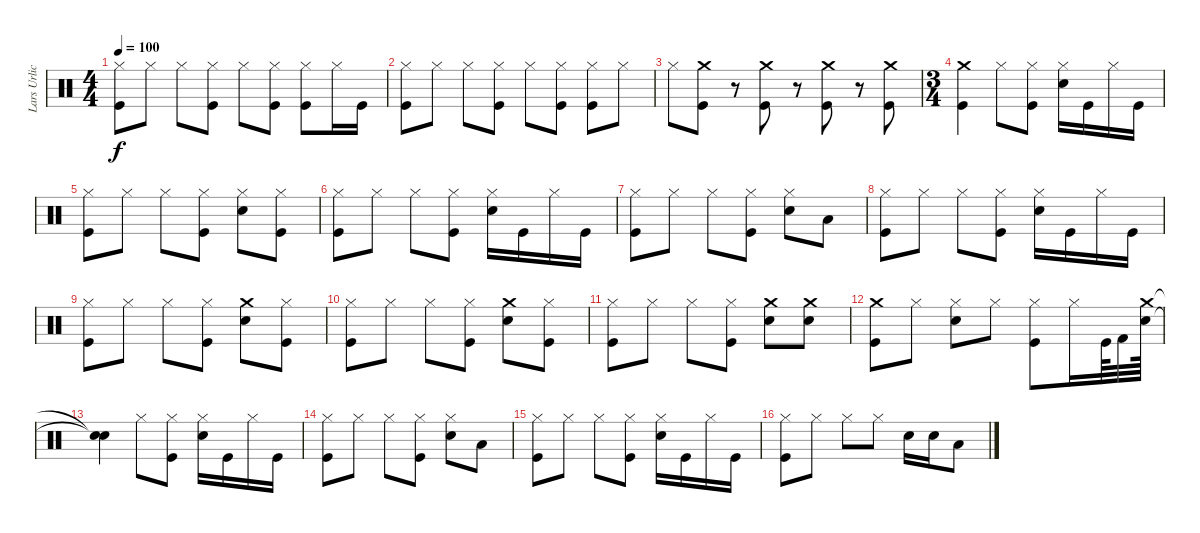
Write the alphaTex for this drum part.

\track ("Lars Urlich" "Lars Urlic") {instrument percussion}
\staff {score}
\articulation defaults
\ts (4 4)
\tempo 100
\clef neutral
\ks c
("Kick (hit)" "Hi-Hat (closed)").8{dy f} "Hi-Hat (closed)".8 "Hi-Hat (closed)".8 ("Kick (hit)" "Hi-Hat (closed)").8 "Hi-Hat (closed)".8 ("Kick (hit)" "Hi-Hat (closed)").8 ("Kick (hit)" "Hi-Hat (closed)").8 "Hi-Hat (closed)".16 "Kick (hit)".16 |
("Kick (hit)" "Hi-Hat (closed)").8 "Hi-Hat (closed)".8 "Hi-Hat (closed)".8 ("Kick (hit)" "Hi-Hat (closed)").8 "Hi-Hat (closed)".8 ("Kick (hit)" "Hi-Hat (closed)").8 ("Kick (hit)" "Hi-Hat (closed)").8 "Hi-Hat (closed)".8 |
"Hi-Hat (closed)".8 ("Kick (hit)" "Crash medium (hit)").8 r.8 ("Kick (hit)" "Crash medium (hit)").8 r.8 ("Kick (hit)" "Crash medium (hit)").8 r.8 ("Kick (hit)" "Crash medium (hit)").8 |
\ts (3 4)
("Crash medium (hit)" "Kick (hit)").4 "Hi-Hat (closed)".8 ("Kick (hit)" "Hi-Hat (closed)").8 ("Snare (hit) 2" "Hi-Hat (closed)").16 "Kick (hit)".16 "Hi-Hat (closed)".16 "Kick (hit)".16 |
("Hi-Hat (closed)" "Kick (hit)").8 "Hi-Hat (closed)".8 "Hi-Hat (closed)".8 ("Kick (hit)" "Hi-Hat (closed)").8 ("Snare (hit) 2" "Hi-Hat (closed)").8 ("Kick (hit)" "Hi-Hat (closed)").8 |
("Kick (hit)" "Hi-Hat (closed)").8 "Hi-Hat (closed)".8 "Hi-Hat (closed)".8 ("Kick (hit)" "Hi-Hat (closed)").8 ("Snare (hit) 2" "Hi-Hat (closed)").16 "Kick (hit)".16 "Hi-Hat (closed)".16 "Kick (hit)".16 |
("Hi-Hat (closed)" "Kick (hit)").8 "Hi-Hat (closed)".8 "Hi-Hat (closed)".8 ("Kick (hit)" "Hi-Hat (closed)").8 ("Snare (hit) 2" "Hi-Hat (closed)").8 "Low Tom (hit)".8 |
("Kick (hit)" "Hi-Hat (closed)").8 "Hi-Hat (closed)".8 "Hi-Hat (closed)".8 ("Kick (hit)" "Hi-Hat (closed)").8 ("Snare (hit) 2" "Hi-Hat (closed)").16 "Kick (hit)".16 "Hi-Hat (closed)".16 "Kick (hit)".16 |
("Hi-Hat (closed)" "Kick (hit)").8 "Hi-Hat (closed)".8 "Hi-Hat (closed)".8 ("Kick (hit)" "Hi-Hat (closed)").8 ("Crash medium (hit)" "Snare (hit) 2").8 ("Kick (hit)" "Hi-Hat (closed)").8 |
("Hi-Hat (closed)" "Kick (hit)").8 "Hi-Hat (closed)".8 "Hi-Hat (closed)".8 ("Kick (hit)" "Hi-Hat (closed)").8 ("Snare (hit) 2" "Crash medium (hit)").8 ("Kick (hit)" "Hi-Hat (closed)").8 |
("Hi-Hat (closed)" "Kick (hit)").8 "Hi-Hat (closed)".8 "Hi-Hat (closed)".8 ("Kick (hit)" "Hi-Hat (closed)").8 ("Crash medium (hit)" "Snare (hit) 2").8 ("Crash medium (hit)" "Snare (hit) 2").8 |
("Crash medium (hit)" "Kick (hit)").8 "Hi-Hat (closed)".8 ("Snare (hit) 2" "Hi-Hat (closed)").8 "Hi-Hat (closed)".8 ("Kick (hit)" "Hi-Hat (closed)").8 "Hi-Hat (closed)".16 "Kick (hit)".64 "Kick (hit) 2".32 ("Snare (hit) 2" "Crash medium (hit)").64 |
("Snare (hit)"{t} "Snare (hit)"{t}).4 "Hi-Hat (closed)".8 ("Kick (hit)" "Hi-Hat (closed)").8 ("Hi-Hat (closed)" "Snare (hit) 2").16 "Kick (hit)".16 "Hi-Hat (closed)".16 "Kick (hit)".16 |
("Hi-Hat (closed)" "Kick (hit)").8 "Hi-Hat (closed)".8 "Hi-Hat (closed)".8 ("Kick (hit)" "Hi-Hat (closed)").8 ("Snare (hit) 2" "Hi-Hat (closed)").8 "Low Tom (hit)".8 |
("Hi-Hat (closed)" "Kick (hit)").8 "Hi-Hat (closed)".8 "Hi-Hat (closed)".8 ("Kick (hit)" "Hi-Hat (closed)").8 ("Hi-Hat (closed)" "Snare (hit) 2").16 "Kick (hit)".16 "Hi-Hat (closed)".16 "Kick (hit)".16 |
("Hi-Hat (closed)" "Kick (hit)").8 "Hi-Hat (closed)".8 "Hi-Hat (closed)".8 "Hi-Hat (closed)".8 "Snare (hit) 2".16 "Snare (hit) 2".16 "Low Tom (hit)".8
